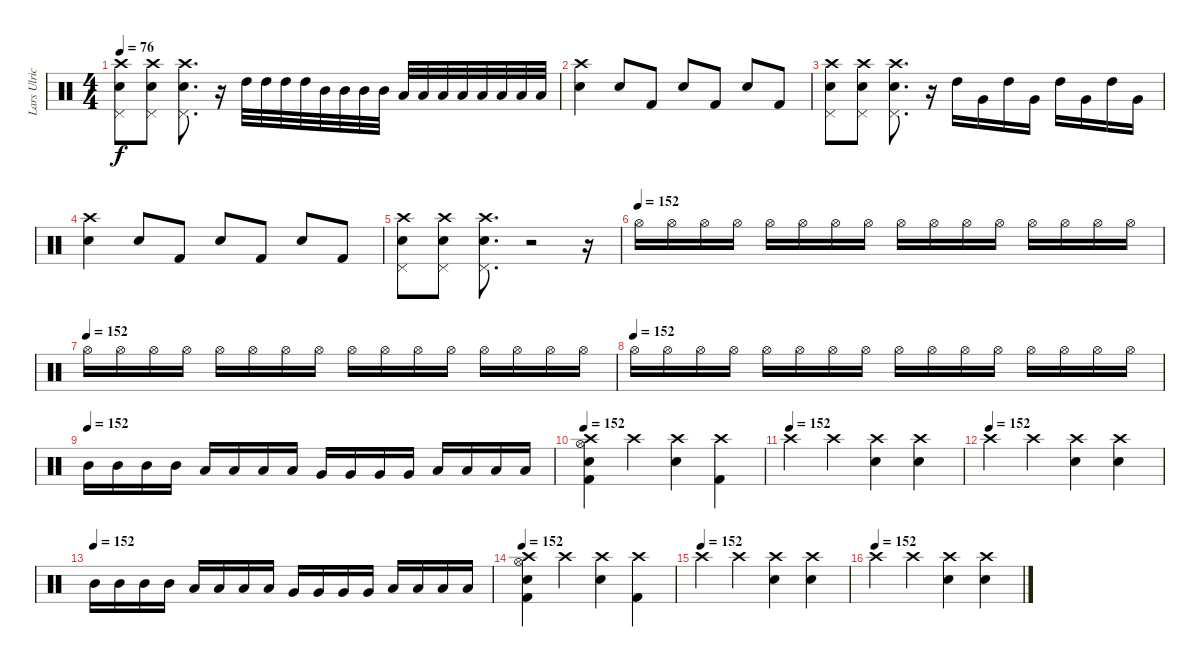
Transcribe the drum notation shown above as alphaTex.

\track ("Lars Ulrich" "Lars Ulric") {instrument percussion}
\staff {score}
\articulation defaults
\ts (4 4)
\tempo 76
\clef neutral
\ks c
("Crash high (hit)" "Pedal Hi-Hat (hit)" "Snare (hit) 2").8{dy f} ("Crash high (hit)" "Pedal Hi-Hat (hit)" "Snare (hit) 2").8 ("Crash high (hit)" "Pedal Hi-Hat (hit)" "Snare (hit) 2").8{d} r.16 "High Tom (hit)".32 "High Tom (hit)".32 "High Tom (hit)".32 "High Tom (hit)".32 "Mid Tom (hit)".32 "Mid Tom (hit)".32 "Mid Tom (hit)".32 "Mid Tom (hit)".32 "Low Tom (hit)".32 "Low Tom (hit)".32 "Low Tom (hit)".32 "Low Tom (hit)".32 "Low Floor Tom (hit)".32 "Low Floor Tom (hit)".32 "Low Floor Tom (hit)".32 "Low Floor Tom (hit)".32 |
("Crash high (hit)" "Snare (hit) 2").4 "Snare (hit) 2".8 "Kick (hit) 2".8 "Snare (hit) 2".8 "Kick (hit) 2".8 "Snare (hit) 2".8 "Kick (hit) 2".8 |
("Crash high (hit)" "Pedal Hi-Hat (hit)" "Snare (hit) 2").8 ("Crash high (hit)" "Pedal Hi-Hat (hit)" "Snare (hit) 2").8 ("Crash high (hit)" "Pedal Hi-Hat (hit)" "Snare (hit) 2").8{d} r.16 "High Tom (hit)".16 "Very Low Tom (hit)".16 "High Tom (hit)".16 "Very Low Tom (hit)".16 "High Tom (hit)".16 "Very Low Tom (hit)".16 "High Tom (hit)".16 "Very Low Tom (hit)".16 |
("Crash high (hit)" "Snare (hit) 2").4 "Snare (hit) 2".8 "Kick (hit) 2".8 "Snare (hit) 2".8 "Kick (hit) 2".8 "Snare (hit) 2".8 "Kick (hit) 2".8 |
("Crash high (hit)" "Pedal Hi-Hat (hit)" "Snare (hit) 2").8 ("Crash high (hit)" "Pedal Hi-Hat (hit)" "Snare (hit) 2").8 ("Crash high (hit)" "Pedal Hi-Hat (hit)" "Snare (hit) 2").8{d} r.2 r.16 |
\tempo (152)
"Hi-Hat (open)".16 "Hi-Hat (open)".16 "Hi-Hat (open)".16 "Hi-Hat (open)".16 "Hi-Hat (open)".16 "Hi-Hat (open)".16 "Hi-Hat (open)".16 "Hi-Hat (open)".16 "Hi-Hat (open)".16 "Hi-Hat (open)".16 "Hi-Hat (open)".16 "Hi-Hat (open)".16 "Hi-Hat (open)".16 "Hi-Hat (open)".16 "Hi-Hat (open)".16 "Hi-Hat (open)".16 |
\tempo (152)
"Hi-Hat (open)".16 "Hi-Hat (open)".16 "Hi-Hat (open)".16 "Hi-Hat (open)".16 "Hi-Hat (open)".16 "Hi-Hat (open)".16 "Hi-Hat (open)".16 "Hi-Hat (open)".16 "Hi-Hat (open)".16 "Hi-Hat (open)".16 "Hi-Hat (open)".16 "Hi-Hat (open)".16 "Hi-Hat (open)".16 "Hi-Hat (open)".16 "Hi-Hat (open)".16 "Hi-Hat (open)".16 |
\tempo (152)
"Hi-Hat (open)".16 "Hi-Hat (open)".16 "Hi-Hat (open)".16 "Hi-Hat (open)".16 "Hi-Hat (open)".16 "Hi-Hat (open)".16 "Hi-Hat (open)".16 "Hi-Hat (open)".16 "Hi-Hat (open)".16 "Hi-Hat (open)".16 "Hi-Hat (open)".16 "Hi-Hat (open)".16 "Hi-Hat (open)".16 "Hi-Hat (open)".16 "Hi-Hat (open)".16 "Hi-Hat (open)".16 |
\tempo (152)
"Mid Tom (hit)".16 "Mid Tom (hit)".16 "Mid Tom (hit)".16 "Mid Tom (hit)".16 "Low Tom (hit)".16 "Low Tom (hit)".16 "Low Tom (hit)".16 "Low Tom (hit)".16 "Very Low Tom (hit)".16 "Very Low Tom (hit)".16 "Very Low Tom (hit)".16 "Very Low Tom (hit)".16 "Low Floor Tom (hit)".16 "Low Floor Tom (hit)".16 "Low Floor Tom (hit)".16 "Low Floor Tom (hit)".16 |
\tempo 152
("Snare (hit) 2" "Hi-Hat (open)" "Crash high (hit)" "Kick (hit) 2").4 "Crash high (hit)".4 ("Crash high (hit)" "Snare (hit) 2").4 ("Crash high (hit)" "Kick (hit) 2").4 |
\tempo (152)
"Crash high (hit)".4 "Crash high (hit)".4 ("Crash high (hit)" "Snare (hit) 2").4 ("Snare (hit) 2" "Crash high (hit)").4 |
\tempo (152)
"Crash high (hit)".4 "Crash high (hit)".4 ("Crash high (hit)" "Snare (hit) 2").4 ("Snare (hit) 2" "Crash high (hit)").4 |
\tempo (152)
"Mid Tom (hit)".16 "Mid Tom (hit)".16 "Mid Tom (hit)".16 "Mid Tom (hit)".16 "Low Tom (hit)".16 "Low Tom (hit)".16 "Low Tom (hit)".16 "Low Tom (hit)".16 "Very Low Tom (hit)".16 "Very Low Tom (hit)".16 "Very Low Tom (hit)".16 "Very Low Tom (hit)".16 "Low Floor Tom (hit)".16 "Low Floor Tom (hit)".16 "Low Floor Tom (hit)".16 "Low Floor Tom (hit)".16 |
\tempo 152
("Snare (hit) 2" "Hi-Hat (open)" "Crash high (hit)" "Kick (hit) 2").4 "Crash high (hit)".4 ("Crash high (hit)" "Snare (hit) 2").4 ("Crash high (hit)" "Kick (hit) 2").4 |
\tempo (152)
"Crash high (hit)".4 "Crash high (hit)".4 ("Crash high (hit)" "Snare (hit) 2").4 ("Snare (hit) 2" "Crash high (hit)").4 |
\tempo (152)
"Crash high (hit)".4 "Crash high (hit)".4 ("Crash high (hit)" "Snare (hit) 2").4 ("Snare (hit) 2" "Crash high (hit)").4
